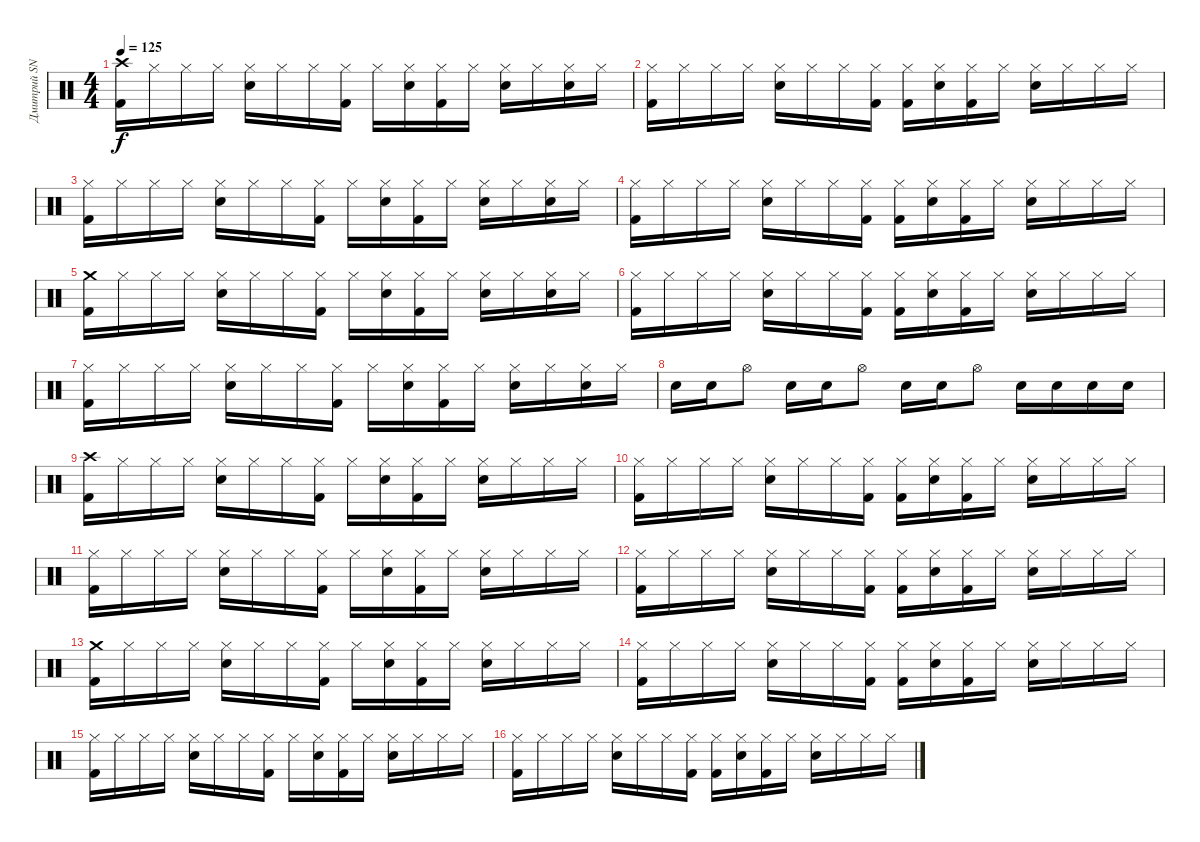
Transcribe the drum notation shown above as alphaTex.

\track ("Дмитрий SNAKE Хакимов" "Дмитрий SN") {instrument percussion}
\staff {score}
\articulation defaults
\ts (4 4)
\tempo 125
\clef neutral
\ks c
("Crash high (hit)" "Kick (hit) 2").16{dy f} "Hi-Hat (closed)".16 "Hi-Hat (closed)".16 "Hi-Hat (closed)".16 ("Hi-Hat (closed)" "Snare (hit) 2").16 "Hi-Hat (closed)".16 "Hi-Hat (closed)".16 ("Hi-Hat (closed)" "Kick (hit) 2").16 "Hi-Hat (closed)".16 ("Hi-Hat (closed)" "Snare (hit) 2").16 ("Hi-Hat (closed)" "Kick (hit) 2").16 "Hi-Hat (closed)".16 ("Hi-Hat (closed)" "Snare (hit) 2").16 "Hi-Hat (closed)".16 ("Hi-Hat (closed)" "Snare (hit) 2").16 "Hi-Hat (closed)".16 |
("Hi-Hat (closed)" "Kick (hit) 2").16 "Hi-Hat (closed)".16 "Hi-Hat (closed)".16 "Hi-Hat (closed)".16 ("Hi-Hat (closed)" "Snare (hit) 2").16 "Hi-Hat (closed)".16 "Hi-Hat (closed)".16 ("Hi-Hat (closed)" "Kick (hit) 2").16 ("Hi-Hat (closed)" "Kick (hit) 2").16 ("Hi-Hat (closed)" "Snare (hit) 2").16 ("Hi-Hat (closed)" "Kick (hit) 2").16 "Hi-Hat (closed)".16 ("Hi-Hat (closed)" "Snare (hit) 2").16 "Hi-Hat (closed)".16 "Hi-Hat (closed)".16 "Hi-Hat (closed)".16 |
("Hi-Hat (closed)" "Kick (hit) 2").16 "Hi-Hat (closed)".16 "Hi-Hat (closed)".16 "Hi-Hat (closed)".16 ("Hi-Hat (closed)" "Snare (hit) 2").16 "Hi-Hat (closed)".16 "Hi-Hat (closed)".16 ("Hi-Hat (closed)" "Kick (hit) 2").16 "Hi-Hat (closed)".16 ("Hi-Hat (closed)" "Snare (hit) 2").16 ("Hi-Hat (closed)" "Kick (hit) 2").16 "Hi-Hat (closed)".16 ("Hi-Hat (closed)" "Snare (hit) 2").16 "Hi-Hat (closed)".16 ("Hi-Hat (closed)" "Snare (hit) 2").16 "Hi-Hat (closed)".16 |
("Hi-Hat (closed)" "Kick (hit) 2").16 "Hi-Hat (closed)".16 "Hi-Hat (closed)".16 "Hi-Hat (closed)".16 ("Hi-Hat (closed)" "Snare (hit) 2").16 "Hi-Hat (closed)".16 "Hi-Hat (closed)".16 ("Hi-Hat (closed)" "Kick (hit) 2").16 ("Hi-Hat (closed)" "Kick (hit) 2").16 ("Hi-Hat (closed)" "Snare (hit) 2").16 ("Hi-Hat (closed)" "Kick (hit) 2").16 "Hi-Hat (closed)".16 ("Hi-Hat (closed)" "Snare (hit) 2").16 "Hi-Hat (closed)".16 "Hi-Hat (closed)".16 "Hi-Hat (closed)".16 |
("Crash medium (hit)" "Kick (hit) 2").16 "Hi-Hat (closed)".16 "Hi-Hat (closed)".16 "Hi-Hat (closed)".16 ("Hi-Hat (closed)" "Snare (hit) 2").16 "Hi-Hat (closed)".16 "Hi-Hat (closed)".16 ("Hi-Hat (closed)" "Kick (hit) 2").16 "Hi-Hat (closed)".16 ("Hi-Hat (closed)" "Snare (hit) 2").16 ("Hi-Hat (closed)" "Kick (hit) 2").16 "Hi-Hat (closed)".16 ("Hi-Hat (closed)" "Snare (hit) 2").16 "Hi-Hat (closed)".16 ("Hi-Hat (closed)" "Snare (hit) 2").16 "Hi-Hat (closed)".16 |
("Hi-Hat (closed)" "Kick (hit) 2").16 "Hi-Hat (closed)".16 "Hi-Hat (closed)".16 "Hi-Hat (closed)".16 ("Hi-Hat (closed)" "Snare (hit) 2").16 "Hi-Hat (closed)".16 "Hi-Hat (closed)".16 ("Hi-Hat (closed)" "Kick (hit) 2").16 ("Hi-Hat (closed)" "Kick (hit) 2").16 ("Hi-Hat (closed)" "Snare (hit) 2").16 ("Hi-Hat (closed)" "Kick (hit) 2").16 "Hi-Hat (closed)".16 ("Hi-Hat (closed)" "Snare (hit) 2").16 "Hi-Hat (closed)".16 "Hi-Hat (closed)".16 "Hi-Hat (closed)".16 |
("Hi-Hat (closed)" "Kick (hit) 2").16 "Hi-Hat (closed)".16 "Hi-Hat (closed)".16 "Hi-Hat (closed)".16 ("Hi-Hat (closed)" "Snare (hit) 2").16 "Hi-Hat (closed)".16 "Hi-Hat (closed)".16 ("Hi-Hat (closed)" "Kick (hit) 2").16 "Hi-Hat (closed)".16 ("Hi-Hat (closed)" "Snare (hit) 2").16 ("Hi-Hat (closed)" "Kick (hit) 2").16 "Hi-Hat (closed)".16 ("Hi-Hat (closed)" "Snare (hit) 2").16 "Hi-Hat (closed)".16 ("Hi-Hat (closed)" "Snare (hit) 2").16 "Hi-Hat (closed)".16 |
"Snare (hit) 2".16 "Snare (hit) 2".16 "Hi-Hat (open)".8 "Snare (hit) 2".16 "Snare (hit) 2".16 "Hi-Hat (open)".8 "Snare (hit) 2".16 "Snare (hit) 2".16 "Hi-Hat (open)".8 "Snare (hit) 2".16 "Snare (hit) 2".16 "Snare (hit) 2".16 "Snare (hit) 2".16 |
("Crash high (hit)" "Kick (hit) 2").16 "Hi-Hat (closed)".16 "Hi-Hat (closed)".16 "Hi-Hat (closed)".16 ("Hi-Hat (closed)" "Snare (hit) 2").16 "Hi-Hat (closed)".16 "Hi-Hat (closed)".16 ("Hi-Hat (closed)" "Kick (hit) 2").16 "Hi-Hat (closed)".16 ("Hi-Hat (closed)" "Snare (hit) 2").16 ("Hi-Hat (closed)" "Kick (hit) 2").16 "Hi-Hat (closed)".16 ("Hi-Hat (closed)" "Snare (hit) 2").16 "Hi-Hat (closed)".16 "Hi-Hat (closed)".16 "Hi-Hat (closed)".16 |
("Hi-Hat (closed)" "Kick (hit) 2").16 "Hi-Hat (closed)".16 "Hi-Hat (closed)".16 "Hi-Hat (closed)".16 ("Hi-Hat (closed)" "Snare (hit) 2").16 "Hi-Hat (closed)".16 "Hi-Hat (closed)".16 ("Hi-Hat (closed)" "Kick (hit) 2").16 ("Hi-Hat (closed)" "Kick (hit) 2").16 ("Hi-Hat (closed)" "Snare (hit) 2").16 ("Hi-Hat (closed)" "Kick (hit) 2").16 "Hi-Hat (closed)".16 ("Hi-Hat (closed)" "Snare (hit) 2").16 "Hi-Hat (closed)".16 "Hi-Hat (closed)".16 "Hi-Hat (closed)".16 |
("Hi-Hat (closed)" "Kick (hit) 2").16 "Hi-Hat (closed)".16 "Hi-Hat (closed)".16 "Hi-Hat (closed)".16 ("Hi-Hat (closed)" "Snare (hit) 2").16 "Hi-Hat (closed)".16 "Hi-Hat (closed)".16 ("Hi-Hat (closed)" "Kick (hit) 2").16 "Hi-Hat (closed)".16 ("Hi-Hat (closed)" "Snare (hit) 2").16 ("Hi-Hat (closed)" "Kick (hit) 2").16 "Hi-Hat (closed)".16 ("Hi-Hat (closed)" "Snare (hit) 2").16 "Hi-Hat (closed)".16 "Hi-Hat (closed)".16 "Hi-Hat (closed)".16 |
("Hi-Hat (closed)" "Kick (hit) 2").16 "Hi-Hat (closed)".16 "Hi-Hat (closed)".16 "Hi-Hat (closed)".16 ("Hi-Hat (closed)" "Snare (hit) 2").16 "Hi-Hat (closed)".16 "Hi-Hat (closed)".16 ("Hi-Hat (closed)" "Kick (hit) 2").16 ("Hi-Hat (closed)" "Kick (hit) 2").16 ("Hi-Hat (closed)" "Snare (hit) 2").16 ("Hi-Hat (closed)" "Kick (hit) 2").16 "Hi-Hat (closed)".16 ("Hi-Hat (closed)" "Snare (hit) 2").16 "Hi-Hat (closed)".16 "Hi-Hat (closed)".16 "Hi-Hat (closed)".16 |
("Crash medium (hit)" "Kick (hit) 2").16 "Hi-Hat (closed)".16 "Hi-Hat (closed)".16 "Hi-Hat (closed)".16 ("Hi-Hat (closed)" "Snare (hit) 2").16 "Hi-Hat (closed)".16 "Hi-Hat (closed)".16 ("Hi-Hat (closed)" "Kick (hit) 2").16 "Hi-Hat (closed)".16 ("Hi-Hat (closed)" "Snare (hit) 2").16 ("Hi-Hat (closed)" "Kick (hit) 2").16 "Hi-Hat (closed)".16 ("Hi-Hat (closed)" "Snare (hit) 2").16 "Hi-Hat (closed)".16 "Hi-Hat (closed)".16 "Hi-Hat (closed)".16 |
("Hi-Hat (closed)" "Kick (hit) 2").16 "Hi-Hat (closed)".16 "Hi-Hat (closed)".16 "Hi-Hat (closed)".16 ("Hi-Hat (closed)" "Snare (hit) 2").16 "Hi-Hat (closed)".16 "Hi-Hat (closed)".16 ("Hi-Hat (closed)" "Kick (hit) 2").16 ("Hi-Hat (closed)" "Kick (hit) 2").16 ("Hi-Hat (closed)" "Snare (hit) 2").16 ("Hi-Hat (closed)" "Kick (hit) 2").16 "Hi-Hat (closed)".16 ("Hi-Hat (closed)" "Snare (hit) 2").16 "Hi-Hat (closed)".16 "Hi-Hat (closed)".16 "Hi-Hat (closed)".16 |
("Hi-Hat (closed)" "Kick (hit) 2").16 "Hi-Hat (closed)".16 "Hi-Hat (closed)".16 "Hi-Hat (closed)".16 ("Hi-Hat (closed)" "Snare (hit) 2").16 "Hi-Hat (closed)".16 "Hi-Hat (closed)".16 ("Hi-Hat (closed)" "Kick (hit) 2").16 "Hi-Hat (closed)".16 ("Hi-Hat (closed)" "Snare (hit) 2").16 ("Hi-Hat (closed)" "Kick (hit) 2").16 "Hi-Hat (closed)".16 ("Hi-Hat (closed)" "Snare (hit) 2").16 "Hi-Hat (closed)".16 "Hi-Hat (closed)".16 "Hi-Hat (closed)".16 |
("Hi-Hat (closed)" "Kick (hit) 2").16 "Hi-Hat (closed)".16 "Hi-Hat (closed)".16 "Hi-Hat (closed)".16 ("Hi-Hat (closed)" "Snare (hit) 2").16 "Hi-Hat (closed)".16 "Hi-Hat (closed)".16 ("Hi-Hat (closed)" "Kick (hit) 2").16 ("Hi-Hat (closed)" "Kick (hit) 2").16 ("Hi-Hat (closed)" "Snare (hit) 2").16 ("Hi-Hat (closed)" "Kick (hit) 2").16 "Hi-Hat (closed)".16 ("Hi-Hat (closed)" "Snare (hit) 2").16 "Hi-Hat (closed)".16 "Hi-Hat (closed)".16 "Hi-Hat (closed)".16
